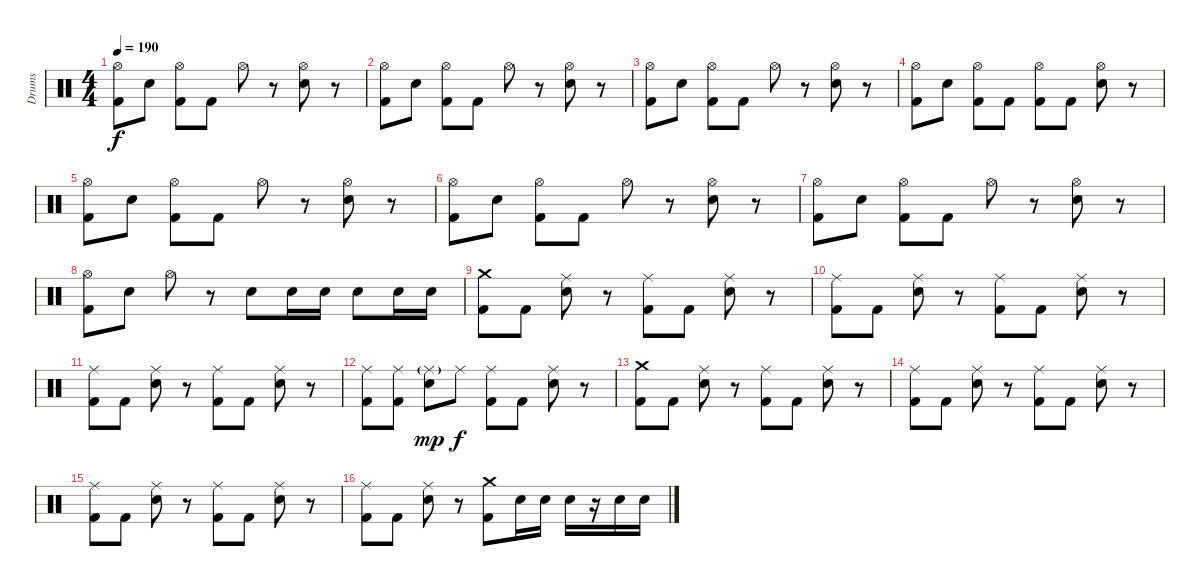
\track ("Drums" "Drums") {instrument percussion}
\staff {score}
\articulation defaults
\ts (4 4)
\tempo 190
\clef neutral
\ks c
("Hi-Hat (open)" "Kick (hit) 2").8{dy f} "Electric Snare (hit)".8 ("Hi-Hat (open)" "Kick (hit) 2").8 "Kick (hit) 2".8 "Hi-Hat (open)".8 r.8 ("Hi-Hat (open)" "Electric Snare (hit)").8 r.8 |
("Hi-Hat (open)" "Kick (hit) 2").8 "Electric Snare (hit)".8 ("Hi-Hat (open)" "Kick (hit) 2").8 "Kick (hit) 2".8 "Hi-Hat (open)".8 r.8 ("Hi-Hat (open)" "Electric Snare (hit)").8 r.8 |
("Hi-Hat (open)" "Kick (hit) 2").8 "Electric Snare (hit)".8 ("Hi-Hat (open)" "Kick (hit) 2").8 "Kick (hit) 2".8 "Hi-Hat (open)".8 r.8 ("Hi-Hat (open)" "Electric Snare (hit)").8 r.8 |
("Hi-Hat (open)" "Kick (hit) 2").8 "Electric Snare (hit)".8 ("Hi-Hat (open)" "Kick (hit) 2").8 "Kick (hit) 2".8 ("Hi-Hat (open)" "Kick (hit) 2").8 "Kick (hit) 2".8 ("Hi-Hat (open)" "Electric Snare (hit)").8 r.8 |
("Hi-Hat (open)" "Kick (hit) 2").8 "Electric Snare (hit)".8 ("Hi-Hat (open)" "Kick (hit) 2").8 "Kick (hit) 2".8 "Hi-Hat (open)".8 r.8 ("Hi-Hat (open)" "Electric Snare (hit)").8 r.8 |
("Hi-Hat (open)" "Kick (hit) 2").8 "Electric Snare (hit)".8 ("Hi-Hat (open)" "Kick (hit) 2").8 "Kick (hit) 2".8 "Hi-Hat (open)".8 r.8 ("Hi-Hat (open)" "Electric Snare (hit)").8 r.8 |
("Hi-Hat (open)" "Kick (hit) 2").8 "Electric Snare (hit)".8 ("Hi-Hat (open)" "Kick (hit) 2").8 "Kick (hit) 2".8 "Hi-Hat (open)".8 r.8 ("Hi-Hat (open)" "Electric Snare (hit)").8 r.8 |
("Hi-Hat (open)" "Kick (hit) 2").8 "Electric Snare (hit)".8 "Hi-Hat (open)".8 r.8 "Electric Snare (hit)".8 "Electric Snare (hit)".16 "Electric Snare (hit)".16 "Electric Snare (hit)".8 "Electric Snare (hit)".16 "Electric Snare (hit)".16 |
("Crash medium (hit)" "Kick (hit) 2").8 "Kick (hit) 2".8 ("Ride (middle)" "Electric Snare (hit)").8 r.8 ("Ride (middle)" "Kick (hit) 2").8 "Kick (hit) 2".8 ("Ride (middle)" "Electric Snare (hit)").8 r.8 |
("Ride (middle)" "Kick (hit) 2").8 "Kick (hit) 2".8 ("Ride (middle)" "Electric Snare (hit)").8 r.8 ("Ride (middle)" "Kick (hit) 2").8 "Kick (hit) 2".8 ("Ride (middle)" "Electric Snare (hit)").8 r.8 |
("Ride (middle)" "Kick (hit) 2").8 "Kick (hit) 2".8 ("Ride (middle)" "Electric Snare (hit)").8 r.8 ("Ride (middle)" "Kick (hit) 2").8 "Kick (hit) 2".8 ("Ride (middle)" "Electric Snare (hit)").8 r.8 |
("Ride (middle)" "Kick (hit) 2").8 ("Ride (middle)" "Kick (hit) 2").8 ("Ride (middle)"{g} "Electric Snare (hit)").8{dy mp} "Ride (middle)".8{dy f} ("Ride (middle)" "Kick (hit) 2").8 "Kick (hit) 2".8 ("Ride (middle)" "Electric Snare (hit)").8 r.8 |
("Crash medium (hit)" "Kick (hit) 2").8 "Kick (hit) 2".8 ("Ride (middle)" "Electric Snare (hit)").8 r.8 ("Ride (middle)" "Kick (hit) 2").8 "Kick (hit) 2".8 ("Ride (middle)" "Electric Snare (hit)").8 r.8 |
("Ride (middle)" "Kick (hit) 2").8 "Kick (hit) 2".8 ("Ride (middle)" "Electric Snare (hit)").8 r.8 ("Ride (middle)" "Kick (hit) 2").8 "Kick (hit) 2".8 ("Ride (middle)" "Electric Snare (hit)").8 r.8 |
("Ride (middle)" "Kick (hit) 2").8 "Kick (hit) 2".8 ("Ride (middle)" "Electric Snare (hit)").8 r.8 ("Ride (middle)" "Kick (hit) 2").8 "Kick (hit) 2".8 ("Ride (middle)" "Electric Snare (hit)").8 r.8 |
("Ride (middle)" "Kick (hit) 2").8 "Kick (hit) 2".8 ("Ride (middle)" "Electric Snare (hit)").8 r.8 ("Crash medium (hit)" "Kick (hit) 2").8 "Electric Snare (hit)".16 "Electric Snare (hit)".16 "Electric Snare (hit)".16 r.16 "Electric Snare (hit)".16 "Electric Snare (hit)".16
